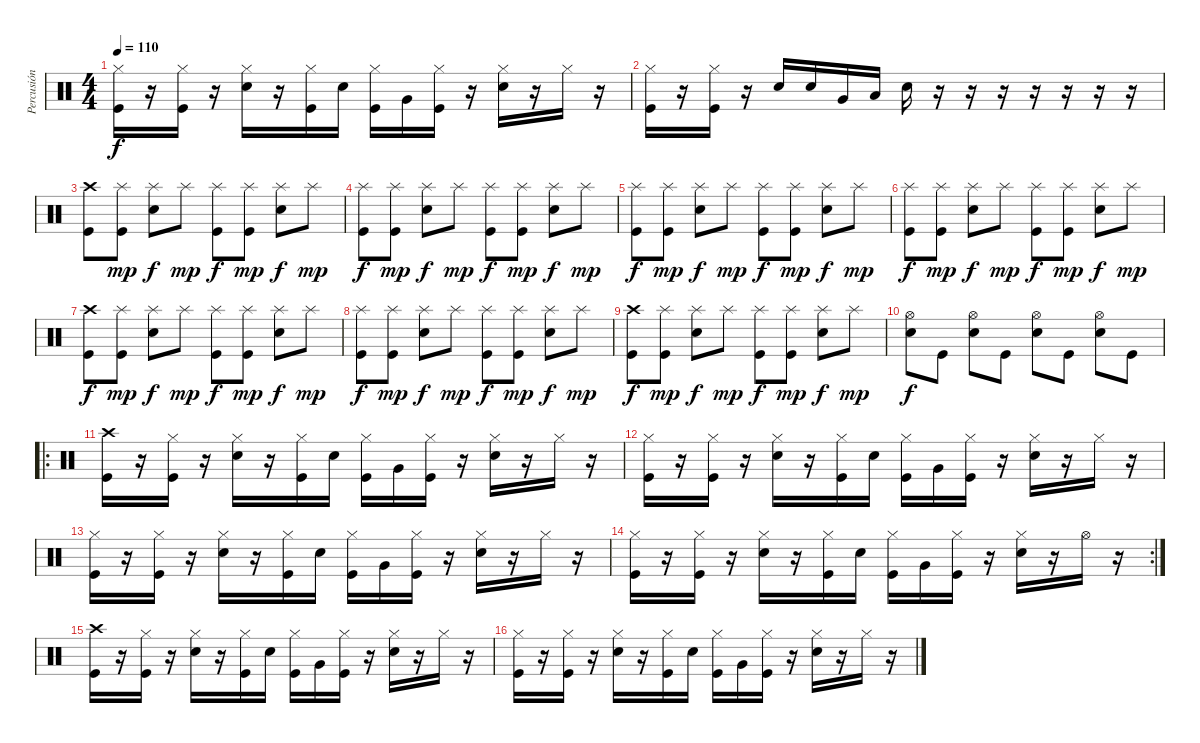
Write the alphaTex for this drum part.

\track ("Percusión" "Percusión") {instrument percussion}
\staff {score}
\articulation defaults
\ts (4 4)
\tempo 110
\clef neutral
\ks c
("Hi-Hat (closed)" "Kick (hit)").16{dy f} r.16 ("Hi-Hat (closed)" "Kick (hit)").16 r.16 ("Hi-Hat (closed)" "Electric Snare (hit)").16 r.16 ("Hi-Hat (closed)" "Kick (hit)").16 "Electric Snare (hit)".16 ("Hi-Hat (closed)" "Kick (hit)").16 "Very Low Tom (hit)".16 ("Hi-Hat (closed)" "Kick (hit)").16 r.16 ("Hi-Hat (closed)" "Electric Snare (hit)").16 r.16 "Hi-Hat (closed)".16 r.16 |
("Hi-Hat (closed)" "Kick (hit)").16 r.16 ("Hi-Hat (closed)" "Kick (hit)").16 r.16 "Electric Snare (hit)".16 "Electric Snare (hit)".16 "Very Low Tom (hit)".16 "Low Floor Tom (hit)".16 "Electric Snare (hit)".16 r.16 r.16 r.16 r.16 r.16 r.16 r.16 |
("Crash high (hit)" "Kick (hit)").8 ("Splash (hit)" "Kick (hit)").8{dy mp} ("Splash (hit)" "Electric Snare (hit)").8{dy f} "Splash (hit)".8{dy mp} ("Splash (hit)" "Kick (hit)").8{dy f} ("Splash (hit)" "Kick (hit)").8{dy mp} ("Splash (hit)" "Electric Snare (hit)").8{dy f} "Splash (hit)".8{dy mp} |
("Splash (hit)" "Kick (hit)").8{dy f} ("Splash (hit)" "Kick (hit)").8{dy mp} ("Splash (hit)" "Electric Snare (hit)").8{dy f} "Splash (hit)".8{dy mp} ("Splash (hit)" "Kick (hit)").8{dy f} ("Splash (hit)" "Kick (hit)").8{dy mp} ("Splash (hit)" "Electric Snare (hit)").8{dy f} "Splash (hit)".8{dy mp} |
("Splash (hit)" "Kick (hit)").8{dy f} ("Splash (hit)" "Kick (hit)").8{dy mp} ("Splash (hit)" "Electric Snare (hit)").8{dy f} "Splash (hit)".8{dy mp} ("Splash (hit)" "Kick (hit)").8{dy f} ("Splash (hit)" "Kick (hit)").8{dy mp} ("Splash (hit)" "Electric Snare (hit)").8{dy f} "Splash (hit)".8{dy mp} |
("Splash (hit)" "Kick (hit)").8{dy f} ("Splash (hit)" "Kick (hit)").8{dy mp} ("Splash (hit)" "Electric Snare (hit)").8{dy f} "Splash (hit)".8{dy mp} ("Splash (hit)" "Kick (hit)").8{dy f} ("Splash (hit)" "Kick (hit)").8{dy mp} ("Splash (hit)" "Electric Snare (hit)").8{dy f} "Splash (hit)".8{dy mp} |
("Crash high (hit)" "Kick (hit)").8{dy f} ("Splash (hit)" "Kick (hit)").8{dy mp} ("Splash (hit)" "Electric Snare (hit)").8{dy f} "Splash (hit)".8{dy mp} ("Splash (hit)" "Kick (hit)").8{dy f} ("Splash (hit)" "Kick (hit)").8{dy mp} ("Splash (hit)" "Electric Snare (hit)").8{dy f} "Splash (hit)".8{dy mp} |
("Splash (hit)" "Kick (hit)").8{dy f} ("Splash (hit)" "Kick (hit)").8{dy mp} ("Splash (hit)" "Electric Snare (hit)").8{dy f} "Splash (hit)".8{dy mp} ("Splash (hit)" "Kick (hit)").8{dy f} ("Splash (hit)" "Kick (hit)").8{dy mp} ("Splash (hit)" "Electric Snare (hit)").8{dy f} "Splash (hit)".8{dy mp} |
("Crash high (hit)" "Kick (hit)").8{dy f} ("Splash (hit)" "Kick (hit)").8{dy mp} ("Splash (hit)" "Electric Snare (hit)").8{dy f} "Splash (hit)".8{dy mp} ("Splash (hit)" "Kick (hit)").8{dy f} ("Splash (hit)" "Kick (hit)").8{dy mp} ("Splash (hit)" "Electric Snare (hit)").8{dy f} "Splash (hit)".8{dy mp} |
("Hi-Hat (open)" "Electric Snare (hit)").8{dy f} "Kick (hit)".8 ("Hi-Hat (open)" "Electric Snare (hit)").8 "Kick (hit)".8 ("Hi-Hat (open)" "Electric Snare (hit)").8 "Kick (hit)".8 ("Hi-Hat (open)" "Electric Snare (hit)").8 "Kick (hit)".8 |
\ro
("Crash high (hit)" "Kick (hit)").16 r.16 ("Hi-Hat (closed)" "Kick (hit)").16 r.16 ("Hi-Hat (closed)" "Electric Snare (hit)").16 r.16 ("Hi-Hat (closed)" "Kick (hit)").16 "Electric Snare (hit)".16 ("Hi-Hat (closed)" "Kick (hit)").16 "Very Low Tom (hit)".16 ("Hi-Hat (closed)" "Kick (hit)").16 r.16 ("Hi-Hat (closed)" "Electric Snare (hit)").16 r.16 "Hi-Hat (closed)".16 r.16 |
("Hi-Hat (closed)" "Kick (hit)").16 r.16 ("Hi-Hat (closed)" "Kick (hit)").16 r.16 ("Hi-Hat (closed)" "Electric Snare (hit)").16 r.16 ("Hi-Hat (closed)" "Kick (hit)").16 "Electric Snare (hit)".16 ("Hi-Hat (closed)" "Kick (hit)").16 "Very Low Tom (hit)".16 ("Hi-Hat (closed)" "Kick (hit)").16 r.16 ("Hi-Hat (closed)" "Electric Snare (hit)").16 r.16 "Hi-Hat (closed)".16 r.16 |
("Hi-Hat (closed)" "Kick (hit)").16 r.16 ("Hi-Hat (closed)" "Kick (hit)").16 r.16 ("Hi-Hat (closed)" "Electric Snare (hit)").16 r.16 ("Hi-Hat (closed)" "Kick (hit)").16 "Electric Snare (hit)".16 ("Hi-Hat (closed)" "Kick (hit)").16 "Very Low Tom (hit)".16 ("Hi-Hat (closed)" "Kick (hit)").16 r.16 ("Hi-Hat (closed)" "Electric Snare (hit)").16 r.16 "Hi-Hat (closed)".16 r.16 |
\rc 2
("Hi-Hat (closed)" "Kick (hit)").16 r.16 ("Hi-Hat (closed)" "Kick (hit)").16 r.16 ("Hi-Hat (closed)" "Electric Snare (hit)").16 r.16 ("Hi-Hat (closed)" "Kick (hit)").16 "Electric Snare (hit)".16 ("Hi-Hat (closed)" "Kick (hit)").16 "Very Low Tom (hit)".16 ("Hi-Hat (closed)" "Kick (hit)").16 r.16 ("Hi-Hat (closed)" "Electric Snare (hit)").16 r.16 "Hi-Hat (open)".16 r.16 |
("Crash high (hit)" "Kick (hit)").16 r.16 ("Hi-Hat (closed)" "Kick (hit)").16 r.16 ("Hi-Hat (closed)" "Electric Snare (hit)").16 r.16 ("Hi-Hat (closed)" "Kick (hit)").16 "Electric Snare (hit)".16 ("Hi-Hat (closed)" "Kick (hit)").16 "Very Low Tom (hit)".16 ("Hi-Hat (closed)" "Kick (hit)").16 r.16 ("Hi-Hat (closed)" "Electric Snare (hit)").16 r.16 "Hi-Hat (closed)".16 r.16 |
("Hi-Hat (closed)" "Kick (hit)").16 r.16 ("Hi-Hat (closed)" "Kick (hit)").16 r.16 ("Hi-Hat (closed)" "Electric Snare (hit)").16 r.16 ("Hi-Hat (closed)" "Kick (hit)").16 "Electric Snare (hit)".16 ("Hi-Hat (closed)" "Kick (hit)").16 "Very Low Tom (hit)".16 ("Hi-Hat (closed)" "Kick (hit)").16 r.16 ("Hi-Hat (closed)" "Electric Snare (hit)").16 r.16 "Hi-Hat (closed)".16 r.16
